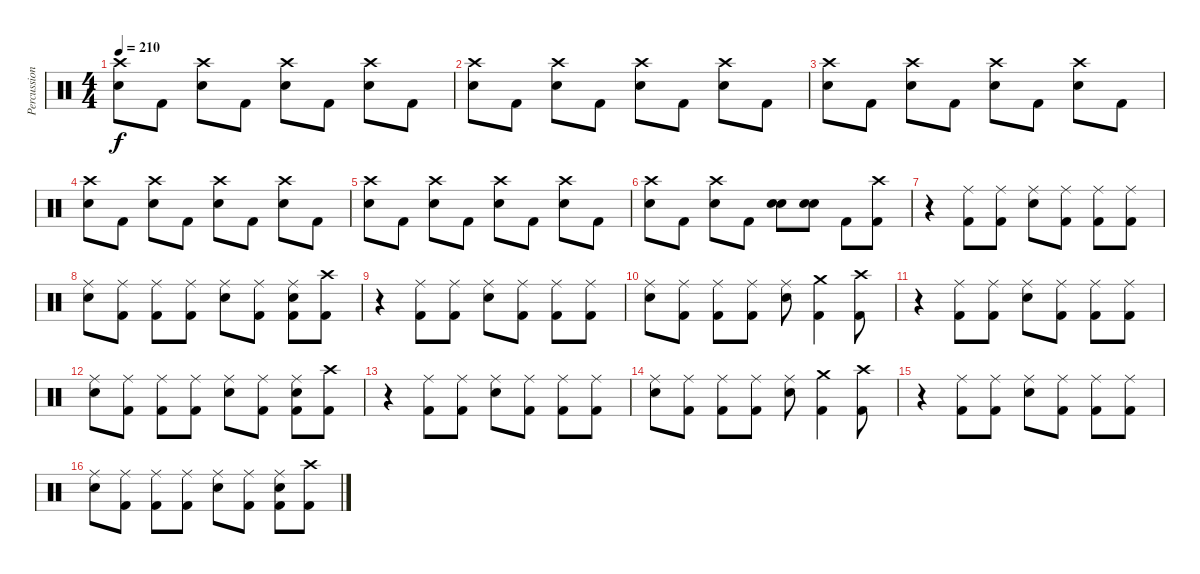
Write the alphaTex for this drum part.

\track ("Percussion" "Percussion") {instrument percussion}
\staff {score}
\articulation defaults
\ts (4 4)
\tempo 210
\clef neutral
\ks c
("Crash high (hit)" "Electric Snare (hit)").8{dy f} "Kick (hit) 2".8 ("Crash high (hit)" "Electric Snare (hit)").8 "Kick (hit) 2".8 ("Crash high (hit)" "Electric Snare (hit)").8 "Kick (hit) 2".8 ("Crash high (hit)" "Electric Snare (hit)").8 "Kick (hit) 2".8 |
("Crash high (hit)" "Electric Snare (hit)").8 "Kick (hit) 2".8 ("Crash high (hit)" "Electric Snare (hit)").8 "Kick (hit) 2".8 ("Crash high (hit)" "Electric Snare (hit)").8 "Kick (hit) 2".8 ("Crash high (hit)" "Electric Snare (hit)").8 "Kick (hit) 2".8 |
("Crash high (hit)" "Electric Snare (hit)").8 "Kick (hit) 2".8 ("Crash high (hit)" "Electric Snare (hit)").8 "Kick (hit) 2".8 ("Crash high (hit)" "Electric Snare (hit)").8 "Kick (hit) 2".8 ("Crash high (hit)" "Electric Snare (hit)").8 "Kick (hit) 2".8 |
("Crash high (hit)" "Electric Snare (hit)").8 "Kick (hit) 2".8 ("Crash high (hit)" "Electric Snare (hit)").8 "Kick (hit) 2".8 ("Crash high (hit)" "Electric Snare (hit)").8 "Kick (hit) 2".8 ("Crash high (hit)" "Electric Snare (hit)").8 "Kick (hit) 2".8 |
("Crash high (hit)" "Electric Snare (hit)").8 "Kick (hit) 2".8 ("Crash high (hit)" "Electric Snare (hit)").8 "Kick (hit) 2".8 ("Crash high (hit)" "Electric Snare (hit)").8 "Kick (hit) 2".8 ("Crash high (hit)" "Electric Snare (hit)").8 "Kick (hit) 2".8 |
("Crash high (hit)" "Electric Snare (hit)").8 "Kick (hit) 2".8 ("Crash high (hit)" "Electric Snare (hit)").8 "Kick (hit) 2".8 ("Electric Snare (hit)" "Electric Snare (hit)").8{bd 240} ("Electric Snare (hit)" "Electric Snare (hit)").8{bd 240} "Kick (hit) 2".8 ("Crash high (hit)" "Kick (hit) 2").8 |
r.4 ("Ride (middle)" "Kick (hit) 2").8 ("Ride (middle)" "Kick (hit) 2").8 ("Ride (middle)" "Electric Snare (hit)").8 ("Ride (middle)" "Kick (hit) 2").8 ("Ride (middle)" "Kick (hit) 2").8 ("Ride (middle)" "Kick (hit) 2").8 |
("Ride (middle)" "Electric Snare (hit)").8 ("Ride (middle)" "Kick (hit) 2").8 ("Ride (middle)" "Kick (hit) 2").8 ("Ride (middle)" "Kick (hit) 2").8 ("Ride (middle)" "Electric Snare (hit)").8 ("Ride (middle)" "Kick (hit) 2").8 ("Ride (middle)" "Electric Snare (hit)" "Kick (hit) 2").8 ("Crash high (hit)" "Kick (hit) 2").8 |
r.4 ("Ride (middle)" "Kick (hit) 2").8 ("Ride (middle)" "Kick (hit) 2").8 ("Ride (middle)" "Electric Snare (hit)").8 ("Ride (middle)" "Kick (hit) 2").8 ("Ride (middle)" "Kick (hit) 2").8 ("Ride (middle)" "Kick (hit) 2").8 |
("Ride (middle)" "Electric Snare (hit)").8 ("Ride (middle)" "Kick (hit) 2").8 ("Ride (middle)" "Kick (hit) 2").8 ("Ride (middle)" "Kick (hit) 2").8 ("Ride (middle)" "Electric Snare (hit)").8 ("Crash medium (hit)" "Kick (hit) 2").4 ("Crash high (hit)" "Kick (hit) 2").8 |
r.4 ("Ride (middle)" "Kick (hit) 2").8 ("Ride (middle)" "Kick (hit) 2").8 ("Ride (middle)" "Electric Snare (hit)").8 ("Ride (middle)" "Kick (hit) 2").8 ("Ride (middle)" "Kick (hit) 2").8 ("Ride (middle)" "Kick (hit) 2").8 |
("Ride (middle)" "Electric Snare (hit)").8 ("Ride (middle)" "Kick (hit) 2").8 ("Ride (middle)" "Kick (hit) 2").8 ("Ride (middle)" "Kick (hit) 2").8 ("Ride (middle)" "Electric Snare (hit)").8 ("Ride (middle)" "Kick (hit) 2").8 ("Ride (middle)" "Electric Snare (hit)" "Kick (hit) 2").8 ("Crash high (hit)" "Kick (hit) 2").8 |
r.4 ("Ride (middle)" "Kick (hit) 2").8 ("Ride (middle)" "Kick (hit) 2").8 ("Ride (middle)" "Electric Snare (hit)").8 ("Ride (middle)" "Kick (hit) 2").8 ("Ride (middle)" "Kick (hit) 2").8 ("Ride (middle)" "Kick (hit) 2").8 |
("Ride (middle)" "Electric Snare (hit)").8 ("Ride (middle)" "Kick (hit) 2").8 ("Ride (middle)" "Kick (hit) 2").8 ("Ride (middle)" "Kick (hit) 2").8 ("Ride (middle)" "Electric Snare (hit)").8 ("Crash medium (hit)" "Kick (hit) 2").4 ("Crash high (hit)" "Kick (hit) 2").8 |
r.4 ("Ride (middle)" "Kick (hit) 2").8 ("Ride (middle)" "Kick (hit) 2").8 ("Ride (middle)" "Electric Snare (hit)").8 ("Ride (middle)" "Kick (hit) 2").8 ("Ride (middle)" "Kick (hit) 2").8 ("Ride (middle)" "Kick (hit) 2").8 |
("Ride (middle)" "Electric Snare (hit)").8 ("Ride (middle)" "Kick (hit) 2").8 ("Ride (middle)" "Kick (hit) 2").8 ("Ride (middle)" "Kick (hit) 2").8 ("Ride (middle)" "Electric Snare (hit)").8 ("Ride (middle)" "Kick (hit) 2").8 ("Ride (middle)" "Electric Snare (hit)" "Kick (hit) 2").8 ("Crash high (hit)" "Kick (hit) 2").8
